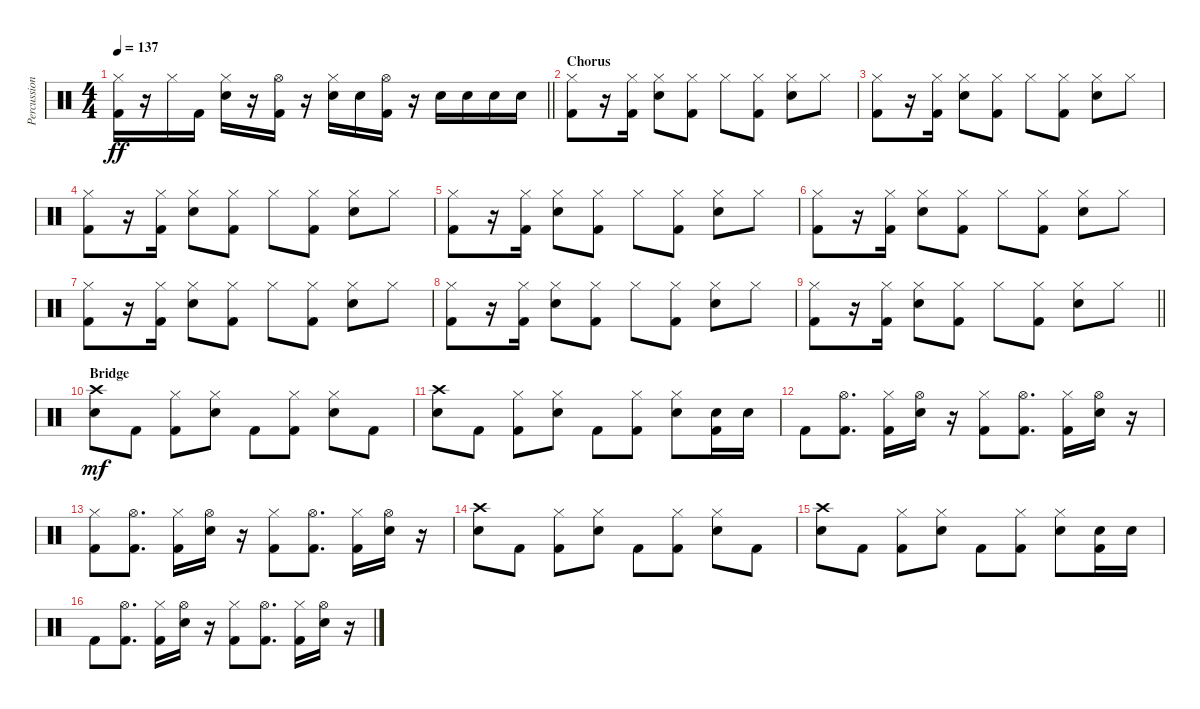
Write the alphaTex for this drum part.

\track ("Percussion" "Percussion") {instrument percussion}
\staff {score}
\articulation defaults
\ts (4 4)
\tempo 137
\clef neutral
\barLineRight lightlight
\ks c
("Hi-Hat (closed)" "Kick (hit) 2").16{dy ff} r.16 "Hi-Hat (closed)".16 "Kick (hit) 2".16 ("Hi-Hat (closed)" "Electric Snare (hit)").16 r.16 ("Hi-Hat (open)" "Kick (hit) 2").16 r.16 ("Hi-Hat (closed)" "Electric Snare (hit)").16 "Electric Snare (hit)".16 ("Hi-Hat (open)" "Kick (hit) 2").16 r.16 "Electric Snare (hit)".16 "Electric Snare (hit)".16 "Electric Snare (hit)".16 "Electric Snare (hit)".16 |
\section ("" "Chorus")
("Hi-Hat (closed)" "Kick (hit) 2").8 r.16 ("Hi-Hat (closed)" "Kick (hit) 2").16 ("Hi-Hat (closed)" "Electric Snare (hit)").8 ("Hi-Hat (closed)" "Kick (hit) 2").8 "Hi-Hat (closed)".8 ("Hi-Hat (closed)" "Kick (hit) 2").8 ("Hi-Hat (closed)" "Electric Snare (hit)").8 "Hi-Hat (closed)".8 |
("Hi-Hat (closed)" "Kick (hit) 2").8 r.16 ("Hi-Hat (closed)" "Kick (hit) 2").16 ("Hi-Hat (closed)" "Electric Snare (hit)").8 ("Hi-Hat (closed)" "Kick (hit) 2").8 "Hi-Hat (closed)".8 ("Hi-Hat (closed)" "Kick (hit) 2").8 ("Hi-Hat (closed)" "Electric Snare (hit)").8 "Hi-Hat (closed)".8 |
("Hi-Hat (closed)" "Kick (hit) 2").8 r.16 ("Hi-Hat (closed)" "Kick (hit) 2").16 ("Hi-Hat (closed)" "Electric Snare (hit)").8 ("Hi-Hat (closed)" "Kick (hit) 2").8 "Hi-Hat (closed)".8 ("Hi-Hat (closed)" "Kick (hit) 2").8 ("Hi-Hat (closed)" "Electric Snare (hit)").8 "Hi-Hat (closed)".8 |
("Hi-Hat (closed)" "Kick (hit) 2").8 r.16 ("Hi-Hat (closed)" "Kick (hit) 2").16 ("Hi-Hat (closed)" "Electric Snare (hit)").8 ("Hi-Hat (closed)" "Kick (hit) 2").8 "Hi-Hat (closed)".8 ("Hi-Hat (closed)" "Kick (hit) 2").8 ("Hi-Hat (closed)" "Electric Snare (hit)").8 "Hi-Hat (closed)".8 |
("Hi-Hat (closed)" "Kick (hit) 2").8 r.16 ("Hi-Hat (closed)" "Kick (hit) 2").16 ("Hi-Hat (closed)" "Electric Snare (hit)").8 ("Hi-Hat (closed)" "Kick (hit) 2").8 "Hi-Hat (closed)".8 ("Hi-Hat (closed)" "Kick (hit) 2").8 ("Hi-Hat (closed)" "Electric Snare (hit)").8 "Hi-Hat (closed)".8 |
("Hi-Hat (closed)" "Kick (hit) 2").8 r.16 ("Hi-Hat (closed)" "Kick (hit) 2").16 ("Hi-Hat (closed)" "Electric Snare (hit)").8 ("Hi-Hat (closed)" "Kick (hit) 2").8 "Hi-Hat (closed)".8 ("Hi-Hat (closed)" "Kick (hit) 2").8 ("Hi-Hat (closed)" "Electric Snare (hit)").8 "Hi-Hat (closed)".8 |
("Hi-Hat (closed)" "Kick (hit) 2").8 r.16 ("Hi-Hat (closed)" "Kick (hit) 2").16 ("Hi-Hat (closed)" "Electric Snare (hit)").8 ("Hi-Hat (closed)" "Kick (hit) 2").8 "Hi-Hat (closed)".8 ("Hi-Hat (closed)" "Kick (hit) 2").8 ("Hi-Hat (closed)" "Electric Snare (hit)").8 "Hi-Hat (closed)".8 |
\barLineRight lightlight
("Hi-Hat (closed)" "Kick (hit) 2").8 r.16 ("Hi-Hat (closed)" "Kick (hit) 2").16 ("Hi-Hat (closed)" "Electric Snare (hit)").8 ("Hi-Hat (closed)" "Kick (hit) 2").8 "Hi-Hat (closed)".8 ("Hi-Hat (closed)" "Kick (hit) 2").8 ("Hi-Hat (closed)" "Electric Snare (hit)").8 "Hi-Hat (closed)".8 |
\section ("" "Bridge")
("Crash high (hit)" "Electric Snare (hit)").8{dy mf} "Kick (hit) 2".8 ("Hi-Hat (closed)" "Kick (hit) 2").8 ("Hi-Hat (closed)" "Electric Snare (hit)").8 "Kick (hit) 2".8 ("Hi-Hat (closed)" "Kick (hit) 2").8 ("Hi-Hat (closed)" "Electric Snare (hit)").8 "Kick (hit) 2".8 |
("Crash high (hit)" "Electric Snare (hit)").8 "Kick (hit) 2".8 ("Hi-Hat (closed)" "Kick (hit) 2").8 ("Hi-Hat (closed)" "Electric Snare (hit)").8 "Kick (hit) 2".8 ("Hi-Hat (closed)" "Kick (hit) 2").8 ("Hi-Hat (closed)" "Electric Snare (hit)").8 ("Electric Snare (hit)" "Kick (hit) 2").16 "Electric Snare (hit)".16 |
"Kick (hit) 2".8 ("Hi-Hat (open)" "Kick (hit) 2").8{d} ("Hi-Hat (closed)" "Kick (hit) 2").16 ("Hi-Hat (open)" "Electric Snare (hit)").16 r.16 ("Hi-Hat (closed)" "Kick (hit) 2").8 ("Hi-Hat (open)" "Kick (hit) 2").8{d} ("Hi-Hat (closed)" "Kick (hit) 2").16 ("Hi-Hat (open)" "Electric Snare (hit)").16 r.16 |
("Hi-Hat (closed)" "Kick (hit) 2").8 ("Hi-Hat (open)" "Kick (hit) 2").8{d} ("Hi-Hat (closed)" "Kick (hit) 2").16 ("Hi-Hat (open)" "Electric Snare (hit)").16 r.16 ("Hi-Hat (closed)" "Kick (hit) 2").8 ("Hi-Hat (open)" "Kick (hit) 2").8{d} ("Hi-Hat (closed)" "Kick (hit) 2").16 ("Hi-Hat (open)" "Electric Snare (hit)").16 r.16 |
("Crash high (hit)" "Electric Snare (hit)").8 "Kick (hit) 2".8 ("Hi-Hat (closed)" "Kick (hit) 2").8 ("Hi-Hat (closed)" "Electric Snare (hit)").8 "Kick (hit) 2".8 ("Hi-Hat (closed)" "Kick (hit) 2").8 ("Hi-Hat (closed)" "Electric Snare (hit)").8 "Kick (hit) 2".8 |
("Crash high (hit)" "Electric Snare (hit)").8 "Kick (hit) 2".8 ("Hi-Hat (closed)" "Kick (hit) 2").8 ("Hi-Hat (closed)" "Electric Snare (hit)").8 "Kick (hit) 2".8 ("Hi-Hat (closed)" "Kick (hit) 2").8 ("Hi-Hat (closed)" "Electric Snare (hit)").8 ("Electric Snare (hit)" "Kick (hit) 2").16 "Electric Snare (hit)".16 |
"Kick (hit) 2".8 ("Hi-Hat (open)" "Kick (hit) 2").8{d} ("Hi-Hat (closed)" "Kick (hit) 2").16 ("Hi-Hat (open)" "Electric Snare (hit)").16 r.16 ("Hi-Hat (closed)" "Kick (hit) 2").8 ("Hi-Hat (open)" "Kick (hit) 2").8{d} ("Hi-Hat (closed)" "Kick (hit) 2").16 ("Hi-Hat (open)" "Electric Snare (hit)").16 r.16
